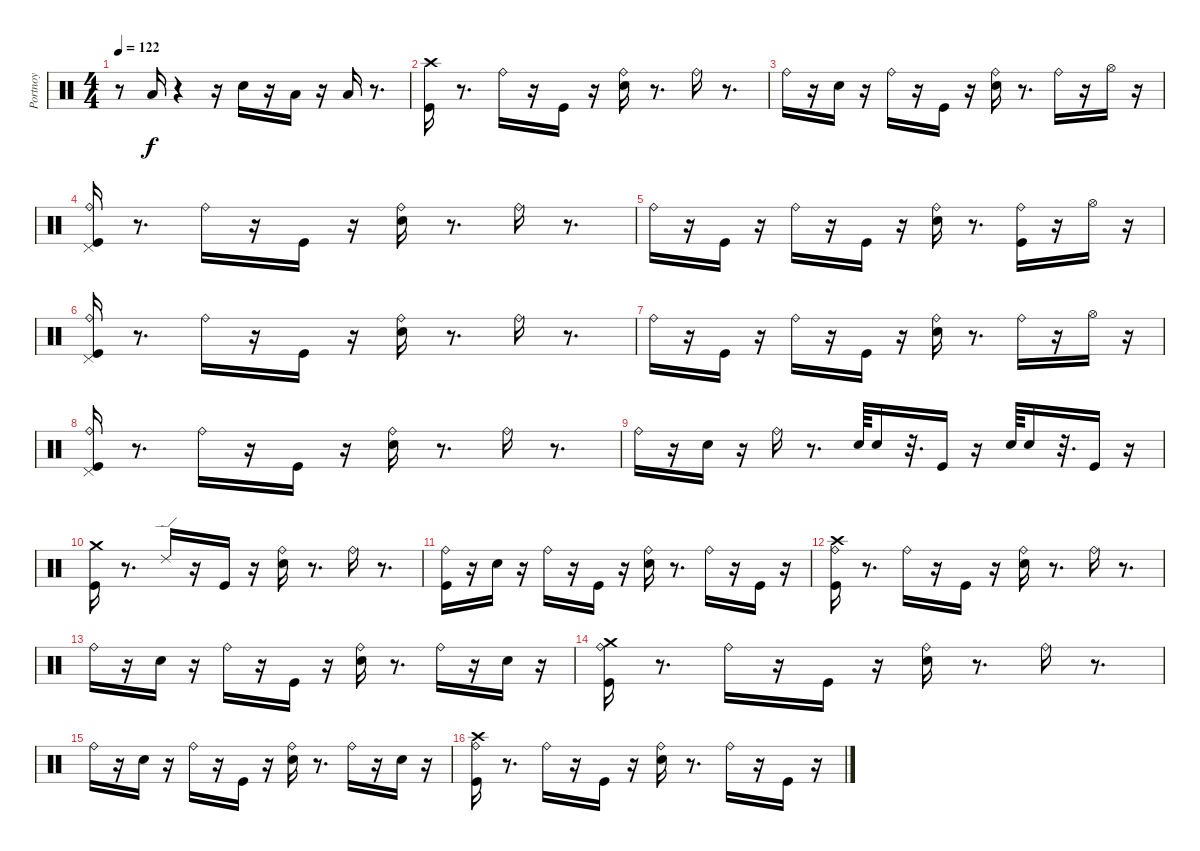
\track ("Portnoy" "Portnoy") {instrument percussion}
\staff {score}
\articulation defaults
\ts (4 4)
\tempo 122
\clef neutral
\ks c
r.8{dy f} "Low Tom (hit)".16 r.4 r.16 "Metronome (bell)".16 r.16 "Low Tom (hit)".16 r.16 "Low Floor Tom (hit)".16 r.8{d} |
("Crash high (hit)" "Kick (hit)").16 r.8{d} "Ride (bell)".16 r.16 "Kick (hit)".16 r.16 ("Metronome (bell)" "Ride (bell)").16 r.8{d} "Ride (bell)".16 r.8{d} |
"Ride (bell)".16 r.16 "Metronome (bell)".16 r.16 "Ride (bell)".16 r.16 "Kick (hit)".16 r.16 ("Metronome (bell)" "Ride (bell)").16 r.8{d} "Ride (bell)".16 r.16 "Hi-Hat (open)".16 r.16 |
("Kick (hit)" "Ride (bell)" "Pedal Hi-Hat (hit)").16 r.8{d} "Ride (bell)".16 r.16 "Kick (hit)".16 r.16 ("Metronome (bell)" "Ride (bell)").16 r.8{d} "Ride (bell)".16 r.8{d} |
"Ride (bell)".16 r.16 "Kick (hit)".16 r.16 "Ride (bell)".16 r.16 "Kick (hit)".16 r.16 ("Metronome (bell)" "Ride (bell)").16 r.8{d} ("Kick (hit)" "Ride (bell)").16 r.16 "Hi-Hat (open)".16 r.16 |
("Ride (bell)" "Pedal Hi-Hat (hit)" "Kick (hit)").16 r.8{d} "Ride (bell)".16 r.16 "Kick (hit)".16 r.16 ("Metronome (bell)" "Ride (bell)").16 r.8{d} "Ride (bell)".16 r.8{d} |
"Ride (bell)".16 r.16 "Kick (hit)".16 r.16 "Ride (bell)".16 r.16 "Kick (hit)".16 r.16 ("Metronome (bell)" "Ride (bell)").16 r.8{d} "Ride (bell)".16 r.16 "Hi-Hat (open)".16 r.16 |
("Pedal Hi-Hat (hit)" "Kick (hit)" "Ride (bell)").16 r.8{d} "Ride (bell)".16 r.16 "Kick (hit)".16 r.16 ("Metronome (bell)" "Ride (bell)").16 r.8{d} "Ride (bell)".16 r.8{d} |
"Ride (bell)".16 r.16 "Metronome (bell)".16 r.16 "Ride (bell)".16 r.8{d} "Metronome (bell)".64 "Metronome (bell)".16 r.32{d} "Kick (hit)".16 r.16 "Metronome (bell)".64 "Metronome (bell)".16 r.32{d} "Kick (hit)".16 r.16 |
("Crash medium (hit)" "Kick (hit)").16 r.8{d} "Ride (edge) 2".16 r.16 "Kick (hit)".16 r.16 ("Metronome (bell)" "Ride (bell)").16 r.8{d} "Ride (bell)".16 r.8{d} |
("Kick (hit)" "Ride (bell)").16 r.16 "Metronome (bell)".16 r.16 "Ride (bell)".16 r.16 "Kick (hit)".16 r.16 ("Metronome (bell)" "Ride (bell)").16 r.8{d} "Ride (bell)".16 r.16 "Kick (hit)".16 r.16 |
("Crash high (hit)" "Ride (bell)" "Kick (hit)").16 r.8{d} "Ride (bell)".16 r.16 "Kick (hit)".16 r.16 ("Metronome (bell)" "Ride (bell)").16 r.8{d} "Ride (bell)".16 r.8{d} |
"Ride (bell)".16 r.16 "Metronome (bell)".16 r.16 "Ride (bell)".16 r.16 "Kick (hit)".16 r.16 ("Metronome (bell)" "Ride (bell)").16 r.8{d} "Ride (bell)".16 r.16 "Metronome (bell)".16 r.16 |
("Ride (bell)" "Crash medium (hit)" "Kick (hit)").16 r.8{d} "Ride (bell)".16 r.16 "Kick (hit)".16 r.16 ("Metronome (bell)" "Ride (bell)").16 r.8{d} "Ride (bell)".16 r.8{d} |
"Ride (bell)".16 r.16 "Metronome (bell)".16 r.16 "Ride (bell)".16 r.16 "Kick (hit)".16 r.16 ("Metronome (bell)" "Ride (bell)").16 r.8{d} "Ride (bell)".16 r.16 "Metronome (bell)".16 r.16 |
("Ride (bell)" "Crash high (hit)" "Kick (hit)").16 r.8{d} "Ride (bell)".16 r.16 "Kick (hit)".16 r.16 ("Ride (bell)" "Metronome (bell)").16 r.8{d} "Ride (bell)".16 r.16 "Kick (hit)".16 r.16
